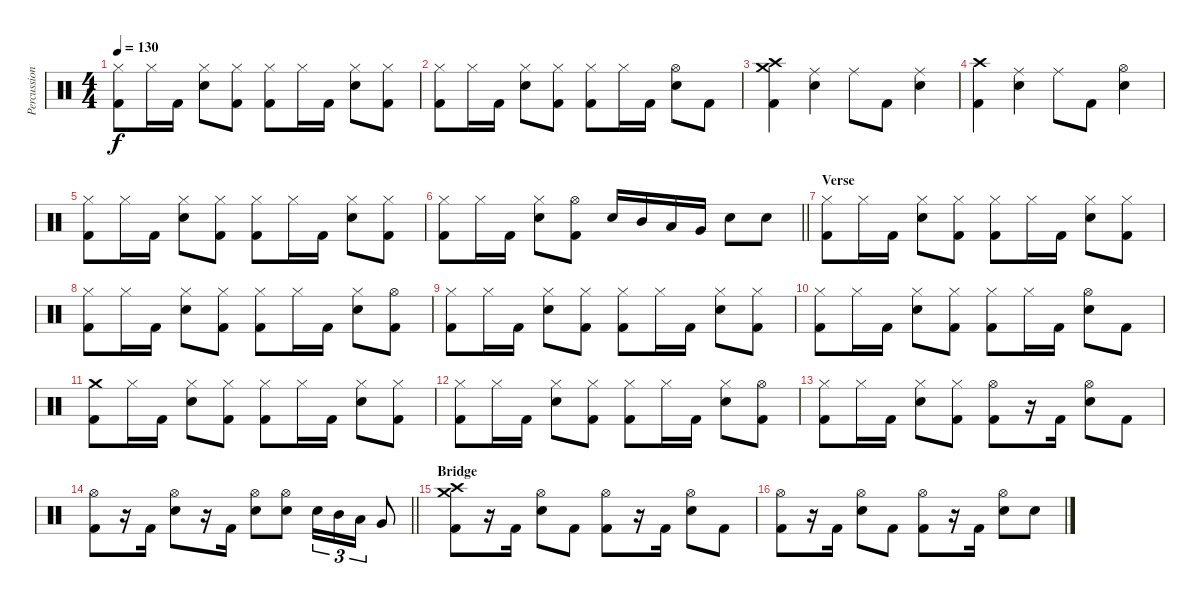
\track ("Percussion" "Percussion") {instrument percussion}
\staff {score}
\articulation defaults
\ts (4 4)
\tempo 130
\clef neutral
\ks c
("Hi-Hat (closed)" "Kick (hit) 2").8{dy f} "Hi-Hat (closed)".16 "Kick (hit) 2".16 ("Hi-Hat (closed)" "Snare (hit) 2").8 ("Hi-Hat (closed)" "Kick (hit) 2").8 ("Hi-Hat (closed)" "Kick (hit) 2").8 "Hi-Hat (closed)".16 "Kick (hit) 2".16 ("Hi-Hat (closed)" "Snare (hit) 2").8 ("Hi-Hat (closed)" "Kick (hit) 2").8 |
("Hi-Hat (closed)" "Kick (hit) 2").8 "Hi-Hat (closed)".16 "Kick (hit) 2".16 ("Hi-Hat (closed)" "Snare (hit) 2").8 ("Hi-Hat (closed)" "Kick (hit) 2").8 ("Hi-Hat (closed)" "Kick (hit) 2").8 "Hi-Hat (closed)".16 "Kick (hit) 2".16 ("Hi-Hat (open)" "Snare (hit) 2").8 "Kick (hit) 2".8 |
("Crash high (hit)" "Crash medium (hit)" "Kick (hit) 2").4 ("Ride (middle)" "Snare (hit) 2").4 "Ride (middle)".8 "Kick (hit) 2".8 ("Ride (middle)" "Snare (hit) 2").4 |
("Crash high (hit)" "Kick (hit) 2").4 ("Ride (middle)" "Snare (hit) 2").4 "Ride (middle)".8 "Kick (hit) 2".8 ("Hi-Hat (open)" "Snare (hit) 2").4 |
("Hi-Hat (closed)" "Kick (hit) 2").8 "Hi-Hat (closed)".16 "Kick (hit) 2".16 ("Hi-Hat (closed)" "Snare (hit) 2").8 ("Hi-Hat (closed)" "Kick (hit) 2").8 ("Hi-Hat (closed)" "Kick (hit) 2").8 "Hi-Hat (closed)".16 "Kick (hit) 2".16 ("Hi-Hat (closed)" "Snare (hit) 2").8 ("Hi-Hat (closed)" "Kick (hit) 2").8 |
\barLineRight lightlight
("Hi-Hat (closed)" "Kick (hit) 2").8 "Hi-Hat (closed)".16 "Kick (hit) 2".16 ("Hi-Hat (closed)" "Snare (hit) 2").8 ("Hi-Hat (open)" "Kick (hit) 2").8 "Snare (hit) 2".16 "Mid Tom (hit)".16 "Low Tom (hit)".16 "Very Low Tom (hit)".16 "Snare (hit) 2".8 "Snare (hit) 2".8 |
\section ("" "Verse")
("Hi-Hat (closed)" "Kick (hit) 2").8 "Hi-Hat (closed)".16 "Kick (hit) 2".16 ("Hi-Hat (closed)" "Snare (hit) 2").8 ("Hi-Hat (closed)" "Kick (hit) 2").8 ("Hi-Hat (closed)" "Kick (hit) 2").8 "Hi-Hat (closed)".16 "Kick (hit) 2".16 ("Hi-Hat (closed)" "Snare (hit) 2").8 ("Hi-Hat (closed)" "Kick (hit) 2").8 |
("Hi-Hat (closed)" "Kick (hit) 2").8 "Hi-Hat (closed)".16 "Kick (hit) 2".16 ("Hi-Hat (closed)" "Snare (hit) 2").8 ("Hi-Hat (closed)" "Kick (hit) 2").8 ("Hi-Hat (closed)" "Kick (hit) 2").8 "Hi-Hat (closed)".16 "Kick (hit) 2".16 ("Hi-Hat (closed)" "Snare (hit) 2").8 ("Hi-Hat (open)" "Kick (hit) 2").8 |
("Hi-Hat (closed)" "Kick (hit) 2").8 "Hi-Hat (closed)".16 "Kick (hit) 2".16 ("Hi-Hat (closed)" "Snare (hit) 2").8 ("Hi-Hat (closed)" "Kick (hit) 2").8 ("Hi-Hat (closed)" "Kick (hit) 2").8 "Hi-Hat (closed)".16 "Kick (hit) 2".16 ("Hi-Hat (closed)" "Snare (hit) 2").8 ("Hi-Hat (closed)" "Kick (hit) 2").8 |
("Hi-Hat (closed)" "Kick (hit) 2").8 "Hi-Hat (closed)".16 "Kick (hit) 2".16 ("Hi-Hat (closed)" "Snare (hit) 2").8 ("Hi-Hat (closed)" "Kick (hit) 2").8 ("Hi-Hat (closed)" "Kick (hit) 2").8 "Hi-Hat (closed)".16 "Kick (hit) 2".16 ("Hi-Hat (open)" "Snare (hit) 2").8 "Kick (hit) 2".8 |
("Crash medium (hit)" "Kick (hit) 2").8 "Hi-Hat (closed)".16 "Kick (hit) 2".16 ("Hi-Hat (closed)" "Snare (hit) 2").8 ("Hi-Hat (closed)" "Kick (hit) 2").8 ("Hi-Hat (closed)" "Kick (hit) 2").8 "Hi-Hat (closed)".16 "Kick (hit) 2".16 ("Hi-Hat (closed)" "Snare (hit) 2").8 ("Hi-Hat (closed)" "Kick (hit) 2").8 |
("Hi-Hat (closed)" "Kick (hit) 2").8 "Hi-Hat (closed)".16 "Kick (hit) 2".16 ("Hi-Hat (closed)" "Snare (hit) 2").8 ("Hi-Hat (closed)" "Kick (hit) 2").8 ("Hi-Hat (closed)" "Kick (hit) 2").8 "Hi-Hat (closed)".16 "Kick (hit) 2".16 ("Hi-Hat (closed)" "Snare (hit) 2").8 ("Hi-Hat (open)" "Kick (hit) 2").8 |
("Hi-Hat (closed)" "Kick (hit) 2").8 "Hi-Hat (closed)".16 "Kick (hit) 2".16 ("Hi-Hat (closed)" "Snare (hit) 2").8 ("Hi-Hat (closed)" "Kick (hit) 2").8 ("Hi-Hat (open)" "Kick (hit) 2").8 r.16 "Kick (hit) 2".16 ("Hi-Hat (open)" "Snare (hit) 2").8 "Kick (hit) 2".8 |
\barLineRight lightlight
("Hi-Hat (open)" "Kick (hit) 2").8 r.16 "Kick (hit) 2".16 ("Hi-Hat (open)" "Snare (hit) 2").8 r.16 "Kick (hit) 2".16 ("Hi-Hat (open)" "Snare (hit) 2").8 ("Hi-Hat (open)" "Snare (hit) 2").8 "Snare (hit) 2".16{tu (3 2)} "Mid Tom (hit)".16{tu (3 2)} "Low Tom (hit)".16{tu (3 2)} "Very Low Tom (hit)".8 |
\section ("" "Bridge")
("Crash medium (hit)" "Crash high (hit)" "Kick (hit) 2").8 r.16 "Kick (hit) 2".16 ("Hi-Hat (open)" "Snare (hit) 2").8 "Kick (hit) 2".8 ("Hi-Hat (open)" "Kick (hit) 2").8 r.16 "Kick (hit) 2".16 ("Hi-Hat (open)" "Snare (hit) 2").8 "Kick (hit) 2".8 |
("Hi-Hat (open)" "Kick (hit) 2").8 r.16 "Kick (hit) 2".16 ("Hi-Hat (open)" "Snare (hit) 2").8 "Kick (hit) 2".8 ("Hi-Hat (open)" "Kick (hit) 2").8 r.16 "Kick (hit) 2".16 ("Hi-Hat (open)" "Snare (hit) 2").8 "Snare (hit) 2".8
